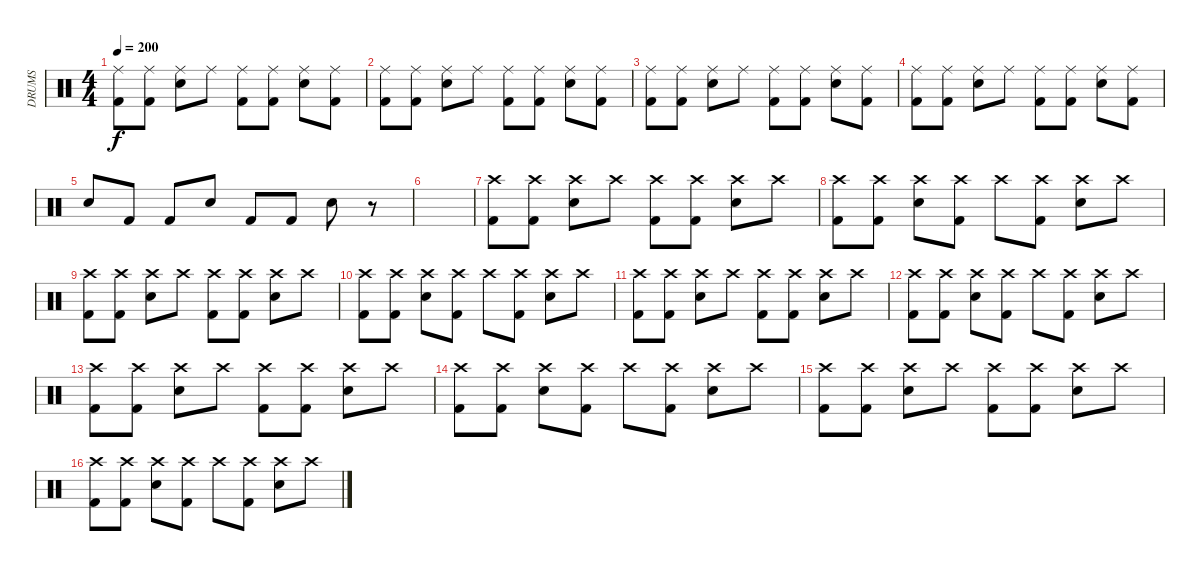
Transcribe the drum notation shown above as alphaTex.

\track ("DRUMS" "DRUMS") {instrument percussion}
\staff {score}
\articulation defaults
\ts (4 4)
\tempo 200
\clef neutral
\ks c
("Ride (middle)" "Kick (hit) 2").8{dy f} ("Ride (middle)" "Kick (hit) 2").8 ("Ride (middle)" "Snare (hit) 2").8 "Ride (middle)".8 ("Ride (middle)" "Kick (hit) 2").8 ("Ride (middle)" "Kick (hit) 2").8 ("Ride (middle)" "Snare (hit) 2").8 ("Ride (middle)" "Kick (hit) 2").8 |
("Ride (middle)" "Kick (hit) 2").8 ("Ride (middle)" "Kick (hit) 2").8 ("Ride (middle)" "Snare (hit) 2").8 "Ride (middle)".8 ("Ride (middle)" "Kick (hit) 2").8 ("Ride (middle)" "Kick (hit) 2").8 ("Ride (middle)" "Snare (hit) 2").8 ("Ride (middle)" "Kick (hit) 2").8 |
("Ride (middle)" "Kick (hit) 2").8 ("Ride (middle)" "Kick (hit) 2").8 ("Ride (middle)" "Snare (hit) 2").8 "Ride (middle)".8 ("Ride (middle)" "Kick (hit) 2").8 ("Ride (middle)" "Kick (hit) 2").8 ("Ride (middle)" "Snare (hit) 2").8 ("Ride (middle)" "Kick (hit) 2").8 |
("Ride (middle)" "Kick (hit) 2").8 ("Ride (middle)" "Kick (hit) 2").8 ("Ride (middle)" "Snare (hit) 2").8 "Ride (middle)".8 ("Ride (middle)" "Kick (hit) 2").8 ("Ride (middle)" "Kick (hit) 2").8 ("Ride (middle)" "Snare (hit) 2").8 ("Ride (middle)" "Kick (hit) 2").8 |
"Snare (hit) 2".8 "Kick (hit) 2".8 "Kick (hit) 2".8 "Snare (hit) 2".8 "Kick (hit) 2".8 "Kick (hit) 2".8 "Snare (hit) 2".8 r.8 |
|
("Crash high (hit)" "Kick (hit) 2").8 ("Crash high (hit)" "Kick (hit) 2").8 ("Crash high (hit)" "Snare (hit) 2").8 "Crash high (hit)".8 ("Crash high (hit)" "Kick (hit) 2").8 ("Crash high (hit)" "Kick (hit) 2").8 ("Crash high (hit)" "Snare (hit) 2").8 "Crash high (hit)".8 |
("Crash high (hit)" "Kick (hit) 2").8 ("Crash high (hit)" "Kick (hit) 2").8 ("Crash high (hit)" "Snare (hit) 2").8 ("Crash high (hit)" "Kick (hit) 2").8 "Crash high (hit)".8 ("Crash high (hit)" "Kick (hit) 2").8 ("Crash high (hit)" "Snare (hit) 2").8 "Crash high (hit)".8 |
("Crash high (hit)" "Kick (hit) 2").8 ("Crash high (hit)" "Kick (hit) 2").8 ("Crash high (hit)" "Snare (hit) 2").8 "Crash high (hit)".8 ("Crash high (hit)" "Kick (hit) 2").8 ("Crash high (hit)" "Kick (hit) 2").8 ("Crash high (hit)" "Snare (hit) 2").8 "Crash high (hit)".8 |
("Crash high (hit)" "Kick (hit) 2").8 ("Crash high (hit)" "Kick (hit) 2").8 ("Crash high (hit)" "Snare (hit) 2").8 ("Crash high (hit)" "Kick (hit) 2").8 "Crash high (hit)".8 ("Crash high (hit)" "Kick (hit) 2").8 ("Crash high (hit)" "Snare (hit) 2").8 "Crash high (hit)".8 |
("Crash high (hit)" "Kick (hit) 2").8 ("Crash high (hit)" "Kick (hit) 2").8 ("Crash high (hit)" "Snare (hit) 2").8 "Crash high (hit)".8 ("Crash high (hit)" "Kick (hit) 2").8 ("Crash high (hit)" "Kick (hit) 2").8 ("Crash high (hit)" "Snare (hit) 2").8 "Crash high (hit)".8 |
("Crash high (hit)" "Kick (hit) 2").8 ("Crash high (hit)" "Kick (hit) 2").8 ("Crash high (hit)" "Snare (hit) 2").8 ("Crash high (hit)" "Kick (hit) 2").8 "Crash high (hit)".8 ("Crash high (hit)" "Kick (hit) 2").8 ("Crash high (hit)" "Snare (hit) 2").8 "Crash high (hit)".8 |
("Crash high (hit)" "Kick (hit) 2").8 ("Crash high (hit)" "Kick (hit) 2").8 ("Crash high (hit)" "Snare (hit) 2").8 "Crash high (hit)".8 ("Crash high (hit)" "Kick (hit) 2").8 ("Crash high (hit)" "Kick (hit) 2").8 ("Crash high (hit)" "Snare (hit) 2").8 "Crash high (hit)".8 |
("Crash high (hit)" "Kick (hit) 2").8 ("Crash high (hit)" "Kick (hit) 2").8 ("Crash high (hit)" "Snare (hit) 2").8 ("Crash high (hit)" "Kick (hit) 2").8 "Crash high (hit)".8 ("Crash high (hit)" "Kick (hit) 2").8 ("Crash high (hit)" "Snare (hit) 2").8 "Crash high (hit)".8 |
("Crash high (hit)" "Kick (hit) 2").8 ("Crash high (hit)" "Kick (hit) 2").8 ("Crash high (hit)" "Snare (hit) 2").8 "Crash high (hit)".8 ("Crash high (hit)" "Kick (hit) 2").8 ("Crash high (hit)" "Kick (hit) 2").8 ("Crash high (hit)" "Snare (hit) 2").8 "Crash high (hit)".8 |
("Crash high (hit)" "Kick (hit) 2").8 ("Crash high (hit)" "Kick (hit) 2").8 ("Crash high (hit)" "Snare (hit) 2").8 ("Crash high (hit)" "Kick (hit) 2").8 "Crash high (hit)".8 ("Crash high (hit)" "Kick (hit) 2").8 ("Crash high (hit)" "Snare (hit) 2").8 "Crash high (hit)".8
